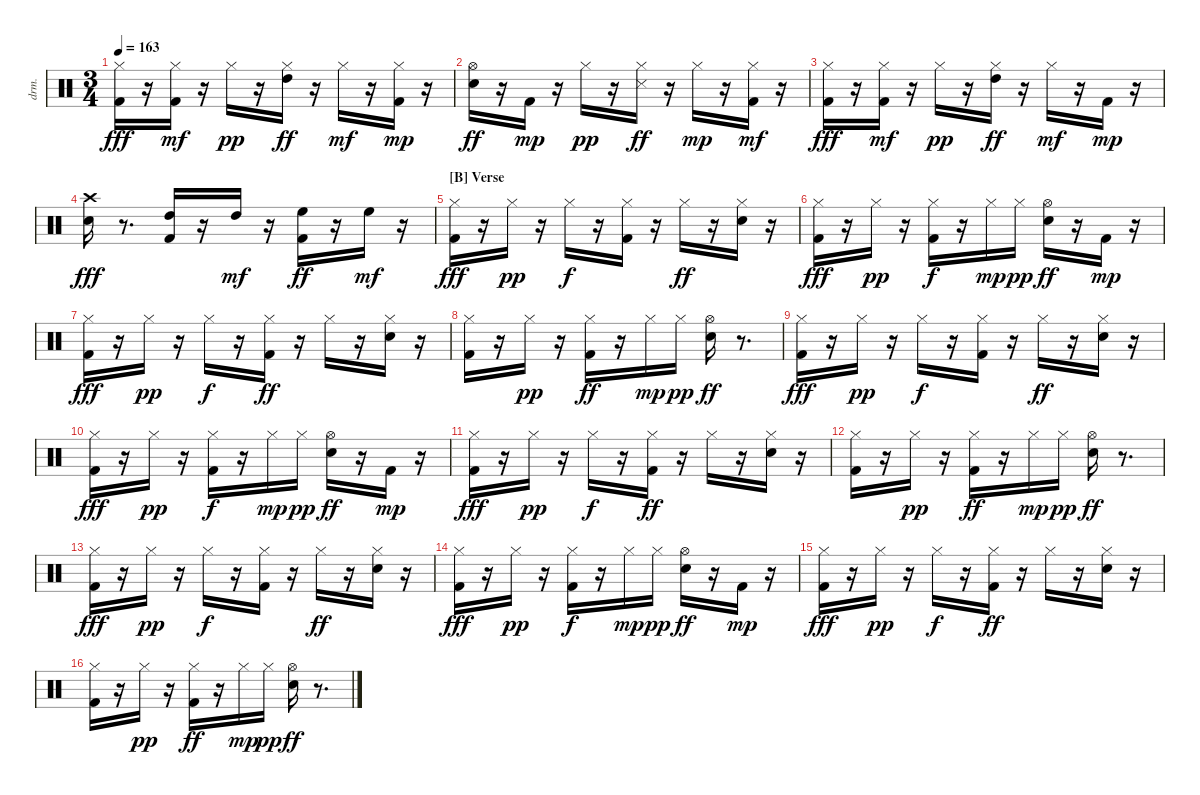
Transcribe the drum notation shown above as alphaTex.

\bracketExtendMode nobrackets
\track ("EZdrummer 3" "drm.") {instrument percussion}
\staff {score}
\articulation defaults
\ts (3 4)
\tempo 163
\clef neutral
\ks aminor
("Kick (hit) 2" "Hi-Hat (closed)"{acc #}).16{dy fff} r.16 ("Kick (hit) 2" "Hi-Hat (closed)"{acc #}).16{dy mf} r.16 "Hi-Hat (closed)"{acc #}.16{dy pp} r.16 ("Hi-Hat (closed)"{acc #} "High Tom (hit)").16{dy ff} r.16 "Hi-Hat (closed)"{acc #}.16{dy mf} r.16 ("Kick (hit) 2" "Hi-Hat (closed)"{acc #}).16{dy mp} r.16 |
("Snare (hit) 2" "Hi-Hat (open)"{acc #}).16{dy ff} r.16 "Kick (hit) 2".16{dy mp} r.16 "Hi-Hat (closed)"{acc #}.16{dy pp} r.16 ("Snare (side stick) 3"{acc #} "Hi-Hat (closed)"{acc #}).16{dy ff} r.16 "Hi-Hat (closed)"{acc #}.16{dy mp} r.16 ("Kick (hit) 2" "Hi-Hat (closed)"{acc #}).16{dy mf} r.16 |
("Kick (hit) 2" "Hi-Hat (closed)"{acc #}).16{dy fff} r.16 ("Kick (hit) 2" "Hi-Hat (closed)"{acc #}).16{dy mf} r.16 "Hi-Hat (closed)"{acc #}.16{dy pp} r.16 ("Hi-Hat (closed)"{acc #} "High Tom (hit)").16{dy ff} r.16 "Hi-Hat (closed)"{acc #}.16{dy mf} r.16 "Kick (hit) 2".16{dy mp} r.16 |
("Snare (hit) 2" "Crash high (hit)"{acc #}).16{dy fff} r.8{d} ("Kick (hit) 2" "High Tom (hit)").16 r.16 "High Tom (hit)".16{dy mf} r.16 ("Kick (hit) 2" "High Floor Tom (hit)").16{dy ff} r.16 "High Floor Tom (hit)".16{dy mf} r.16 |
\section ("B" "Verse")
("Kick (hit) 2" "Hi-Hat (closed)"{acc #}).16{dy fff} r.16 "Hi-Hat (closed)"{acc #}.16{dy pp} r.16 "Hi-Hat (closed)"{acc #}.16{dy f} r.16 ("Kick (hit) 2" "Hi-Hat (closed)"{acc #}).16 r.16 "Hi-Hat (closed)"{acc #}.16{dy ff} r.16 ("Snare (hit) 2" "Hi-Hat (closed)"{acc #}).16 r.16 |
("Kick (hit) 2" "Hi-Hat (closed)"{acc #}).16{dy fff} r.16 "Hi-Hat (closed)"{acc #}.16{dy pp} r.16 ("Kick (hit) 2" "Hi-Hat (closed)"{acc #}).16{dy f} r.16 "Hi-Hat (closed)"{acc #}.16{dy mp} "Hi-Hat (closed)"{acc #}.16{dy pp} ("Snare (hit) 2" "Hi-Hat (open)"{acc #}).16{dy ff} r.16 "Kick (hit) 2".16{dy mp} r.16 |
("Kick (hit) 2" "Hi-Hat (closed)"{acc #}).16{dy fff} r.16 "Hi-Hat (closed)"{acc #}.16{dy pp} r.16 "Hi-Hat (closed)"{acc #}.16{dy f} r.16 ("Kick (hit) 2" "Hi-Hat (closed)"{acc #}).16{dy ff} r.16 "Hi-Hat (closed)"{acc #}.16 r.16 ("Snare (hit) 2" "Hi-Hat (closed)"{acc #}).16 r.16 |
("Kick (hit) 2" "Hi-Hat (closed)"{acc #}).16 r.16 "Hi-Hat (closed)"{acc #}.16{dy pp} r.16 ("Kick (hit) 2" "Hi-Hat (closed)"{acc #}).16{dy ff} r.16 "Hi-Hat (closed)"{acc #}.16{dy mp} "Hi-Hat (closed)"{acc #}.16{dy pp} ("Snare (hit) 2" "Hi-Hat (open)"{acc #}).16{dy ff} r.8{d} |
("Kick (hit) 2" "Hi-Hat (closed)"{acc #}).16{dy fff} r.16 "Hi-Hat (closed)"{acc #}.16{dy pp} r.16 "Hi-Hat (closed)"{acc #}.16{dy f} r.16 ("Kick (hit) 2" "Hi-Hat (closed)"{acc #}).16 r.16 "Hi-Hat (closed)"{acc #}.16{dy ff} r.16 ("Snare (hit) 2" "Hi-Hat (closed)"{acc #}).16 r.16 |
("Kick (hit) 2" "Hi-Hat (closed)"{acc #}).16{dy fff} r.16 "Hi-Hat (closed)"{acc #}.16{dy pp} r.16 ("Kick (hit) 2" "Hi-Hat (closed)"{acc #}).16{dy f} r.16 "Hi-Hat (closed)"{acc #}.16{dy mp} "Hi-Hat (closed)"{acc #}.16{dy pp} ("Snare (hit) 2" "Hi-Hat (open)"{acc #}).16{dy ff} r.16 "Kick (hit) 2".16{dy mp} r.16 |
("Kick (hit) 2" "Hi-Hat (closed)"{acc #}).16{dy fff} r.16 "Hi-Hat (closed)"{acc #}.16{dy pp} r.16 "Hi-Hat (closed)"{acc #}.16{dy f} r.16 ("Kick (hit) 2" "Hi-Hat (closed)"{acc #}).16{dy ff} r.16 "Hi-Hat (closed)"{acc #}.16 r.16 ("Snare (hit) 2" "Hi-Hat (closed)"{acc #}).16 r.16 |
("Kick (hit) 2" "Hi-Hat (closed)"{acc #}).16 r.16 "Hi-Hat (closed)"{acc #}.16{dy pp} r.16 ("Kick (hit) 2" "Hi-Hat (closed)"{acc #}).16{dy ff} r.16 "Hi-Hat (closed)"{acc #}.16{dy mp} "Hi-Hat (closed)"{acc #}.16{dy pp} ("Snare (hit) 2" "Hi-Hat (open)"{acc #}).16{dy ff} r.8{d} |
("Kick (hit) 2" "Hi-Hat (closed)"{acc #}).16{dy fff} r.16 "Hi-Hat (closed)"{acc #}.16{dy pp} r.16 "Hi-Hat (closed)"{acc #}.16{dy f} r.16 ("Kick (hit) 2" "Hi-Hat (closed)"{acc #}).16 r.16 "Hi-Hat (closed)"{acc #}.16{dy ff} r.16 ("Snare (hit) 2" "Hi-Hat (closed)"{acc #}).16 r.16 |
("Kick (hit) 2" "Hi-Hat (closed)"{acc #}).16{dy fff} r.16 "Hi-Hat (closed)"{acc #}.16{dy pp} r.16 ("Kick (hit) 2" "Hi-Hat (closed)"{acc #}).16{dy f} r.16 "Hi-Hat (closed)"{acc #}.16{dy mp} "Hi-Hat (closed)"{acc #}.16{dy pp} ("Snare (hit) 2" "Hi-Hat (open)"{acc #}).16{dy ff} r.16 "Kick (hit) 2".16{dy mp} r.16 |
("Kick (hit) 2" "Hi-Hat (closed)"{acc #}).16{dy fff} r.16 "Hi-Hat (closed)"{acc #}.16{dy pp} r.16 "Hi-Hat (closed)"{acc #}.16{dy f} r.16 ("Kick (hit) 2" "Hi-Hat (closed)"{acc #}).16{dy ff} r.16 "Hi-Hat (closed)"{acc #}.16 r.16 ("Snare (hit) 2" "Hi-Hat (closed)"{acc #}).16 r.16 |
("Kick (hit) 2" "Hi-Hat (closed)"{acc #}).16 r.16 "Hi-Hat (closed)"{acc #}.16{dy pp} r.16 ("Kick (hit) 2" "Hi-Hat (closed)"{acc #}).16{dy ff} r.16 "Hi-Hat (closed)"{acc #}.16{dy mp} "Hi-Hat (closed)"{acc #}.16{dy pp} ("Snare (hit) 2" "Hi-Hat (open)"{acc #}).16{dy ff} r.8{d}
